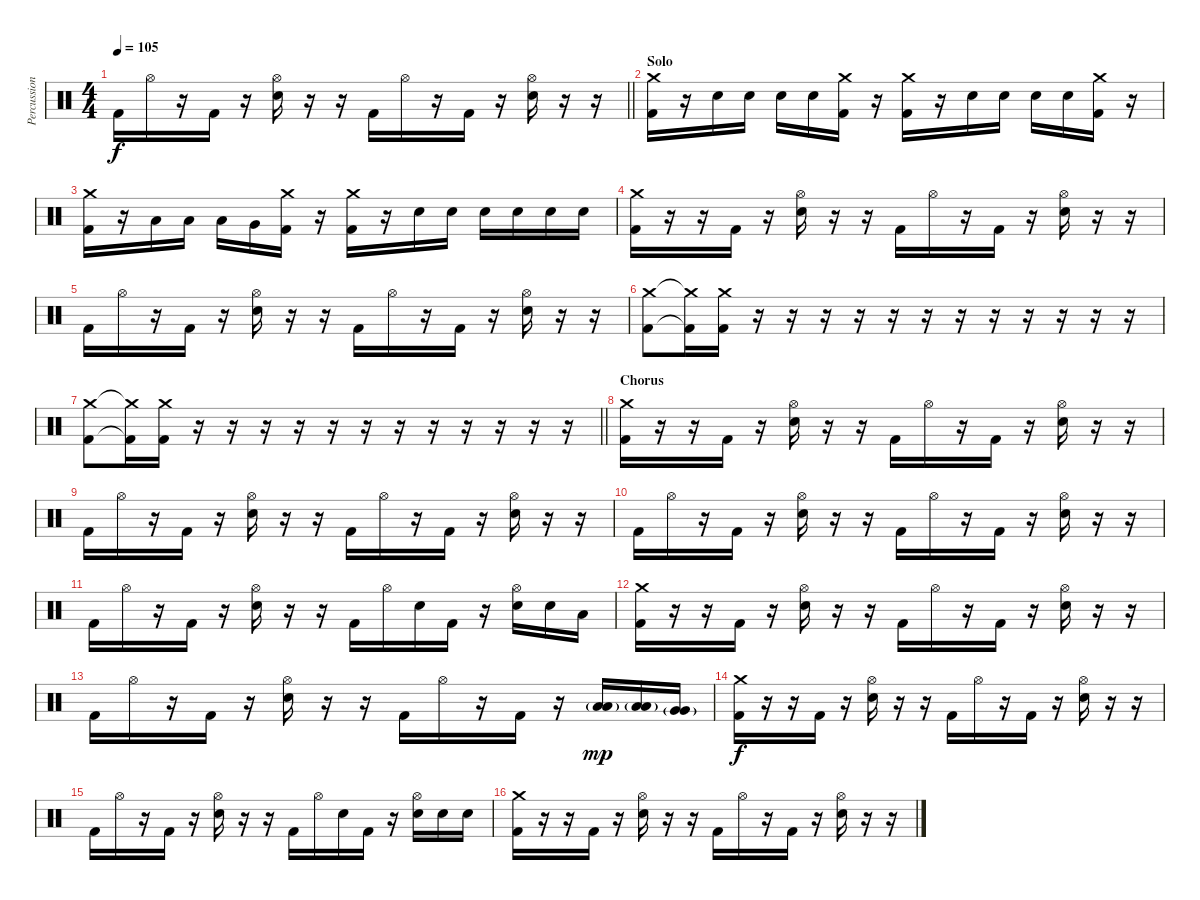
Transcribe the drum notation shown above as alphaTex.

\track ("Percussion" "Percussion") {instrument percussion}
\staff {score}
\articulation defaults
\ts (4 4)
\tempo 105
\clef neutral
\barLineRight lightlight
\ks c "Kick (hit) 2".16{dy f} "Hi-Hat (open)".16
r.16 "Kick (hit) 2".16 r.16 ("Hi-Hat (open)" "Electric Snare (hit)").16 r.16 r.16 "Kick (hit) 2".16 "Hi-Hat (open)".16 r.16 "Kick (hit) 2".16 r.16 ("Hi-Hat (open)" "Electric Snare (hit)").16 r.16 r.16 |
\section ("" "Solo")
("Crash medium (hit)" "Kick (hit) 2").16 r.16 "Electric Snare (hit)".16 "Electric Snare (hit)".16 "Electric Snare (hit)".16 "Electric Snare (hit)".16 ("Crash medium (hit)" "Kick (hit) 2").16 r.16 ("Crash medium (hit)" "Kick (hit) 2").16 r.16 "Electric Snare (hit)".16 "Electric Snare (hit)".16 "Electric Snare (hit)".16 "Electric Snare (hit)".16 ("Crash medium (hit)" "Kick (hit) 2").16 r.16 |
("Crash medium (hit)" "Kick (hit) 2").16 r.16 "Low Tom (hit)".16 "Low Tom (hit)".16 "Low Tom (hit)".16 "Very Low Tom (hit)".16 ("Crash medium (hit)" "Kick (hit) 2").16 r.16 ("Crash medium (hit)" "Kick (hit) 2").16 r.16 "Electric Snare (hit)".16 "Electric Snare (hit)".16 "Electric Snare (hit)".16 "Electric Snare (hit)".16 "Electric Snare (hit)".16 "Electric Snare (hit)".16 |
("Crash medium (hit)" "Kick (hit) 2").16 r.16 r.16 "Kick (hit) 2".16 r.16 ("Hi-Hat (open)" "Electric Snare (hit)").16 r.16 r.16 "Kick (hit) 2".16 "Hi-Hat (open)".16 r.16 "Kick (hit) 2".16 r.16 ("Hi-Hat (open)" "Electric Snare (hit)").16 r.16 r.16 |
"Kick (hit) 2".16 "Hi-Hat (open)".16 r.16 "Kick (hit) 2".16 r.16 ("Hi-Hat (open)" "Electric Snare (hit)").16 r.16 r.16 "Kick (hit) 2".16 "Hi-Hat (open)".16 r.16 "Kick (hit) 2".16 r.16 ("Hi-Hat (open)" "Electric Snare (hit)").16 r.16 r.16 |
("Crash medium (hit)" "Kick (hit) 2").8 ("Crash medium (hit)"{t} "Kick (hit) 2"{t}).16 ("Crash medium (hit)" "Kick (hit) 2").16 r.16 r.16 r.16 r.16 r.16 r.16 r.16 r.16 r.16 r.16 r.16 r.16 |
\barLineRight lightlight
("Crash medium (hit)" "Kick (hit) 2").8 ("Crash medium (hit)"{t} "Kick (hit) 2"{t}).16 ("Crash medium (hit)" "Kick (hit) 2").16 r.16 r.16 r.16 r.16 r.16 r.16 r.16 r.16 r.16 r.16 r.16 r.16 |
\section ("" "Chorus")
("Crash medium (hit)" "Kick (hit) 2").16 r.16 r.16 "Kick (hit) 2".16 r.16 ("Hi-Hat (open)" "Electric Snare (hit)").16 r.16 r.16 "Kick (hit) 2".16 "Hi-Hat (open)".16 r.16 "Kick (hit) 2".16 r.16 ("Hi-Hat (open)" "Electric Snare (hit)").16 r.16 r.16 |
"Kick (hit) 2".16 "Hi-Hat (open)".16 r.16 "Kick (hit) 2".16 r.16 ("Hi-Hat (open)" "Electric Snare (hit)").16 r.16 r.16 "Kick (hit) 2".16 "Hi-Hat (open)".16 r.16 "Kick (hit) 2".16 r.16 ("Hi-Hat (open)" "Electric Snare (hit)").16 r.16 r.16 |
"Kick (hit) 2".16 "Hi-Hat (open)".16 r.16 "Kick (hit) 2".16 r.16 ("Hi-Hat (open)" "Electric Snare (hit)").16 r.16 r.16 "Kick (hit) 2".16 "Hi-Hat (open)".16 r.16 "Kick (hit) 2".16 r.16 ("Hi-Hat (open)" "Electric Snare (hit)").16 r.16 r.16 |
"Kick (hit) 2".16 "Hi-Hat (open)".16 r.16 "Kick (hit) 2".16 r.16 ("Hi-Hat (open)" "Electric Snare (hit)").16 r.16 r.16 "Kick (hit) 2".16 "Hi-Hat (open)".16 "Electric Snare (hit)".16 "Kick (hit) 2".16 r.16 ("Hi-Hat (open)" "Electric Snare (hit)").16 "Electric Snare (hit)".16 "Low Tom (hit)".16 |
("Crash medium (hit)" "Kick (hit) 2").16 r.16 r.16 "Kick (hit) 2".16 r.16 ("Hi-Hat (open)" "Electric Snare (hit)").16 r.16 r.16 "Kick (hit) 2".16 "Hi-Hat (open)".16 r.16 "Kick (hit) 2".16 r.16 ("Hi-Hat (open)" "Electric Snare (hit)").16 r.16 r.16 |
"Kick (hit) 2".16 "Hi-Hat (open)".16 r.16 "Kick (hit) 2".16 r.16 ("Hi-Hat (open)" "Electric Snare (hit)").16 r.16 r.16 "Kick (hit) 2".16 "Hi-Hat (open)".16 r.16 "Kick (hit) 2".16 r.16 ("Low Tom (hit)"{g} "Low Tom (hit)").16{dy mp} ("Low Tom (hit)"{g} "Low Tom (hit)").16 ("Very Low Tom (hit)"{g} "Very Low Tom (hit)").16 |
("Crash medium (hit)" "Kick (hit) 2").16{dy f} r.16 r.16 "Kick (hit) 2".16 r.16 ("Hi-Hat (open)" "Electric Snare (hit)").16 r.16 r.16 "Kick (hit) 2".16 "Hi-Hat (open)".16 r.16 "Kick (hit) 2".16 r.16 ("Hi-Hat (open)" "Electric Snare (hit)").16 r.16 r.16 |
"Kick (hit) 2".16 "Hi-Hat (open)".16 r.16 "Kick (hit) 2".16 r.16 ("Hi-Hat (open)" "Electric Snare (hit)").16 r.16 r.16 "Kick (hit) 2".16 "Hi-Hat (open)".16 "Electric Snare (hit)".16 "Kick (hit) 2".16 r.16 ("Hi-Hat (open)" "Electric Snare (hit)").16 "Electric Snare (hit)".16 "Electric Snare (hit)".16 |
("Crash medium (hit)" "Kick (hit) 2").16 r.16 r.16 "Kick (hit) 2".16 r.16 ("Hi-Hat (open)" "Electric Snare (hit)").16 r.16 r.16 "Kick (hit) 2".16 "Hi-Hat (open)".16 r.16 "Kick (hit) 2".16 r.16 ("Hi-Hat (open)" "Electric Snare (hit)").16 r.16 r.16
